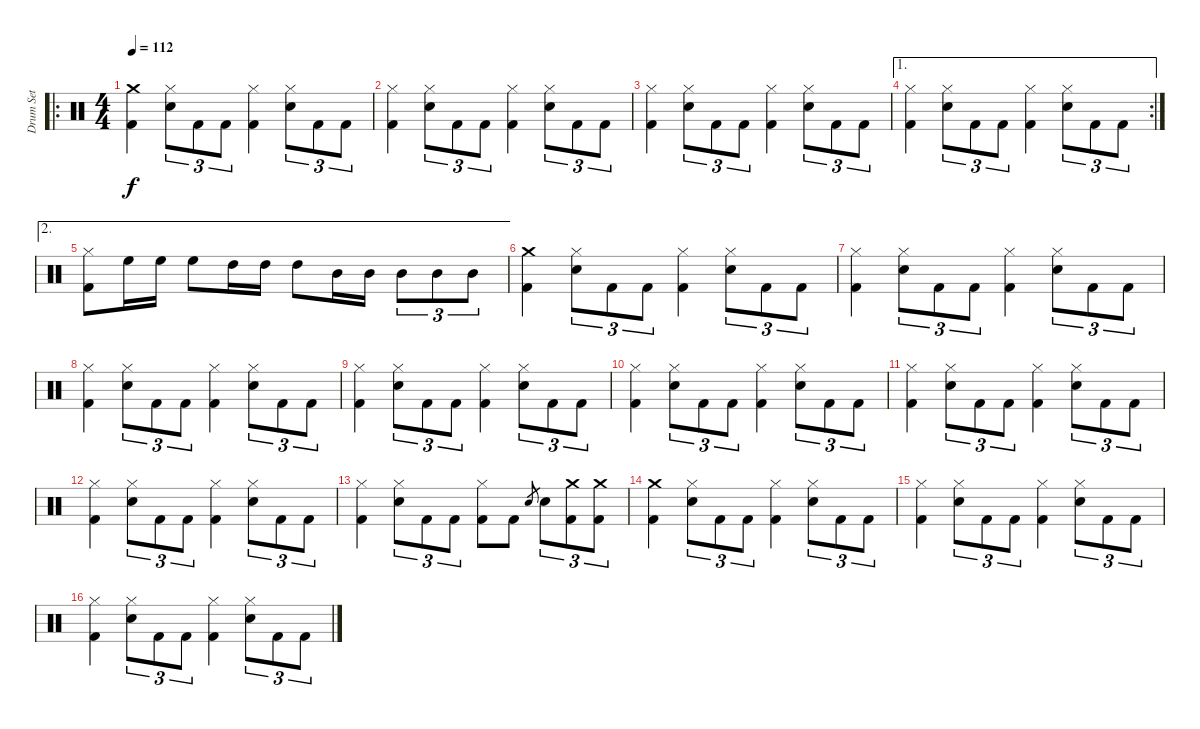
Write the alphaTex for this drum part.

\track ("Drum Set" "Drum Set") {instrument percussion}
\staff {score}
\articulation defaults
\ro
\ts (4 4)
\tempo 112
\clef neutral
\ks c
("Crash medium (hit)" "Kick (hit) 2").4{dy f} ("Hi-Hat (closed)" "Snare (hit) 2").8{tu (3 2)} "Kick (hit) 2".8{tu (3 2)} "Kick (hit) 2".8{tu (3 2)} ("Hi-Hat (closed)" "Kick (hit) 2").4 ("Hi-Hat (closed)" "Snare (hit) 2").8{tu (3 2)} "Kick (hit) 2".8{tu (3 2)} "Kick (hit) 2".8{tu (3 2)} |
("Hi-Hat (closed)" "Kick (hit) 2").4 ("Hi-Hat (closed)" "Snare (hit) 2").8{tu (3 2)} "Kick (hit) 2".8{tu (3 2)} "Kick (hit) 2".8{tu (3 2)} ("Hi-Hat (closed)" "Kick (hit) 2").4 ("Hi-Hat (closed)" "Snare (hit) 2").8{tu (3 2)} "Kick (hit) 2".8{tu (3 2)} "Kick (hit) 2".8{tu (3 2)} |
("Hi-Hat (closed)" "Kick (hit) 2").4 ("Hi-Hat (closed)" "Snare (hit) 2").8{tu (3 2)} "Kick (hit) 2".8{tu (3 2)} "Kick (hit) 2".8{tu (3 2)} ("Hi-Hat (closed)" "Kick (hit) 2").4 ("Hi-Hat (closed)" "Snare (hit) 2").8{tu (3 2)} "Kick (hit) 2".8{tu (3 2)} "Kick (hit) 2".8{tu (3 2)} |
\ae 1
\rc 2
("Hi-Hat (closed)" "Kick (hit) 2").4 ("Hi-Hat (closed)" "Snare (hit) 2").8{tu (3 2)} "Kick (hit) 2".8{tu (3 2)} "Kick (hit) 2".8{tu (3 2)} ("Hi-Hat (closed)" "Kick (hit) 2").4 ("Hi-Hat (closed)" "Snare (hit) 2").8{tu (3 2)} "Kick (hit) 2".8{tu (3 2)} "Kick (hit) 2".8{tu (3 2)} |
\ae 2
("Hi-Hat (closed)" "Kick (hit) 2").8 "High Floor Tom (hit)".16 "High Floor Tom (hit)".16 "High Floor Tom (hit)".8 "High Tom (hit)".16 "High Tom (hit)".16 "High Tom (hit)".8 "Mid Tom (hit)".16 "Mid Tom (hit)".16 "Mid Tom (hit)".8{tu (3 2)} "Mid Tom (hit)".8{tu (3 2)} "Mid Tom (hit)".8{tu (3 2)} |
("Crash medium (hit)" "Kick (hit) 2").4 ("Hi-Hat (closed)" "Snare (hit) 2").8{tu (3 2)} "Kick (hit) 2".8{tu (3 2)} "Kick (hit) 2".8{tu (3 2)} ("Hi-Hat (closed)" "Kick (hit) 2").4 ("Hi-Hat (closed)" "Snare (hit) 2").8{tu (3 2)} "Kick (hit) 2".8{tu (3 2)} "Kick (hit) 2".8{tu (3 2)} |
("Hi-Hat (closed)" "Kick (hit) 2").4 ("Hi-Hat (closed)" "Snare (hit) 2").8{tu (3 2)} "Kick (hit) 2".8{tu (3 2)} "Kick (hit) 2".8{tu (3 2)} ("Hi-Hat (closed)" "Kick (hit) 2").4 ("Hi-Hat (closed)" "Snare (hit) 2").8{tu (3 2)} "Kick (hit) 2".8{tu (3 2)} "Kick (hit) 2".8{tu (3 2)} |
("Hi-Hat (closed)" "Kick (hit) 2").4 ("Hi-Hat (closed)" "Snare (hit) 2").8{tu (3 2)} "Kick (hit) 2".8{tu (3 2)} "Kick (hit) 2".8{tu (3 2)} ("Hi-Hat (closed)" "Kick (hit) 2").4 ("Hi-Hat (closed)" "Snare (hit) 2").8{tu (3 2)} "Kick (hit) 2".8{tu (3 2)} "Kick (hit) 2".8{tu (3 2)} |
("Hi-Hat (closed)" "Kick (hit) 2").4 ("Hi-Hat (closed)" "Snare (hit) 2").8{tu (3 2)} "Kick (hit) 2".8{tu (3 2)} "Kick (hit) 2".8{tu (3 2)} ("Hi-Hat (closed)" "Kick (hit) 2").4 ("Hi-Hat (closed)" "Snare (hit) 2").8{tu (3 2)} "Kick (hit) 2".8{tu (3 2)} "Kick (hit) 2".8{tu (3 2)} |
("Hi-Hat (closed)" "Kick (hit) 2").4 ("Hi-Hat (closed)" "Snare (hit) 2").8{tu (3 2)} "Kick (hit) 2".8{tu (3 2)} "Kick (hit) 2".8{tu (3 2)} ("Hi-Hat (closed)" "Kick (hit) 2").4 ("Hi-Hat (closed)" "Snare (hit) 2").8{tu (3 2)} "Kick (hit) 2".8{tu (3 2)} "Kick (hit) 2".8{tu (3 2)} |
("Hi-Hat (closed)" "Kick (hit) 2").4 ("Hi-Hat (closed)" "Snare (hit) 2").8{tu (3 2)} "Kick (hit) 2".8{tu (3 2)} "Kick (hit) 2".8{tu (3 2)} ("Hi-Hat (closed)" "Kick (hit) 2").4 ("Hi-Hat (closed)" "Snare (hit) 2").8{tu (3 2)} "Kick (hit) 2".8{tu (3 2)} "Kick (hit) 2".8{tu (3 2)} |
("Hi-Hat (closed)" "Kick (hit) 2").4 ("Hi-Hat (closed)" "Snare (hit) 2").8{tu (3 2)} "Kick (hit) 2".8{tu (3 2)} "Kick (hit) 2".8{tu (3 2)} ("Hi-Hat (closed)" "Kick (hit) 2").4 ("Hi-Hat (closed)" "Snare (hit) 2").8{tu (3 2)} "Kick (hit) 2".8{tu (3 2)} "Kick (hit) 2".8{tu (3 2)} |
("Hi-Hat (closed)" "Kick (hit) 2").4 ("Hi-Hat (closed)" "Snare (hit) 2").8{tu (3 2)} "Kick (hit) 2".8{tu (3 2)} "Kick (hit) 2".8{tu (3 2)} ("Hi-Hat (closed)" "Kick (hit) 2").8 "Kick (hit) 2".8 "Snare (hit) 2".8{gr} "Snare (hit) 2".8{tu (3 2)} ("Crash medium (hit)" "Kick (hit) 2").8{tu (3 2)} ("Crash medium (hit)" "Kick (hit) 2").8{tu (3 2)} |
("Crash medium (hit)" "Kick (hit) 2").4 ("Hi-Hat (closed)" "Snare (hit) 2").8{tu (3 2)} "Kick (hit) 2".8{tu (3 2)} "Kick (hit) 2".8{tu (3 2)} ("Hi-Hat (closed)" "Kick (hit) 2").4 ("Hi-Hat (closed)" "Snare (hit) 2").8{tu (3 2)} "Kick (hit) 2".8{tu (3 2)} "Kick (hit) 2".8{tu (3 2)} |
("Hi-Hat (closed)" "Kick (hit) 2").4 ("Hi-Hat (closed)" "Snare (hit) 2").8{tu (3 2)} "Kick (hit) 2".8{tu (3 2)} "Kick (hit) 2".8{tu (3 2)} ("Hi-Hat (closed)" "Kick (hit) 2").4 ("Hi-Hat (closed)" "Snare (hit) 2").8{tu (3 2)} "Kick (hit) 2".8{tu (3 2)} "Kick (hit) 2".8{tu (3 2)} |
("Hi-Hat (closed)" "Kick (hit) 2").4 ("Hi-Hat (closed)" "Snare (hit) 2").8{tu (3 2)} "Kick (hit) 2".8{tu (3 2)} "Kick (hit) 2".8{tu (3 2)} ("Hi-Hat (closed)" "Kick (hit) 2").4 ("Hi-Hat (closed)" "Snare (hit) 2").8{tu (3 2)} "Kick (hit) 2".8{tu (3 2)} "Kick (hit) 2".8{tu (3 2)}
